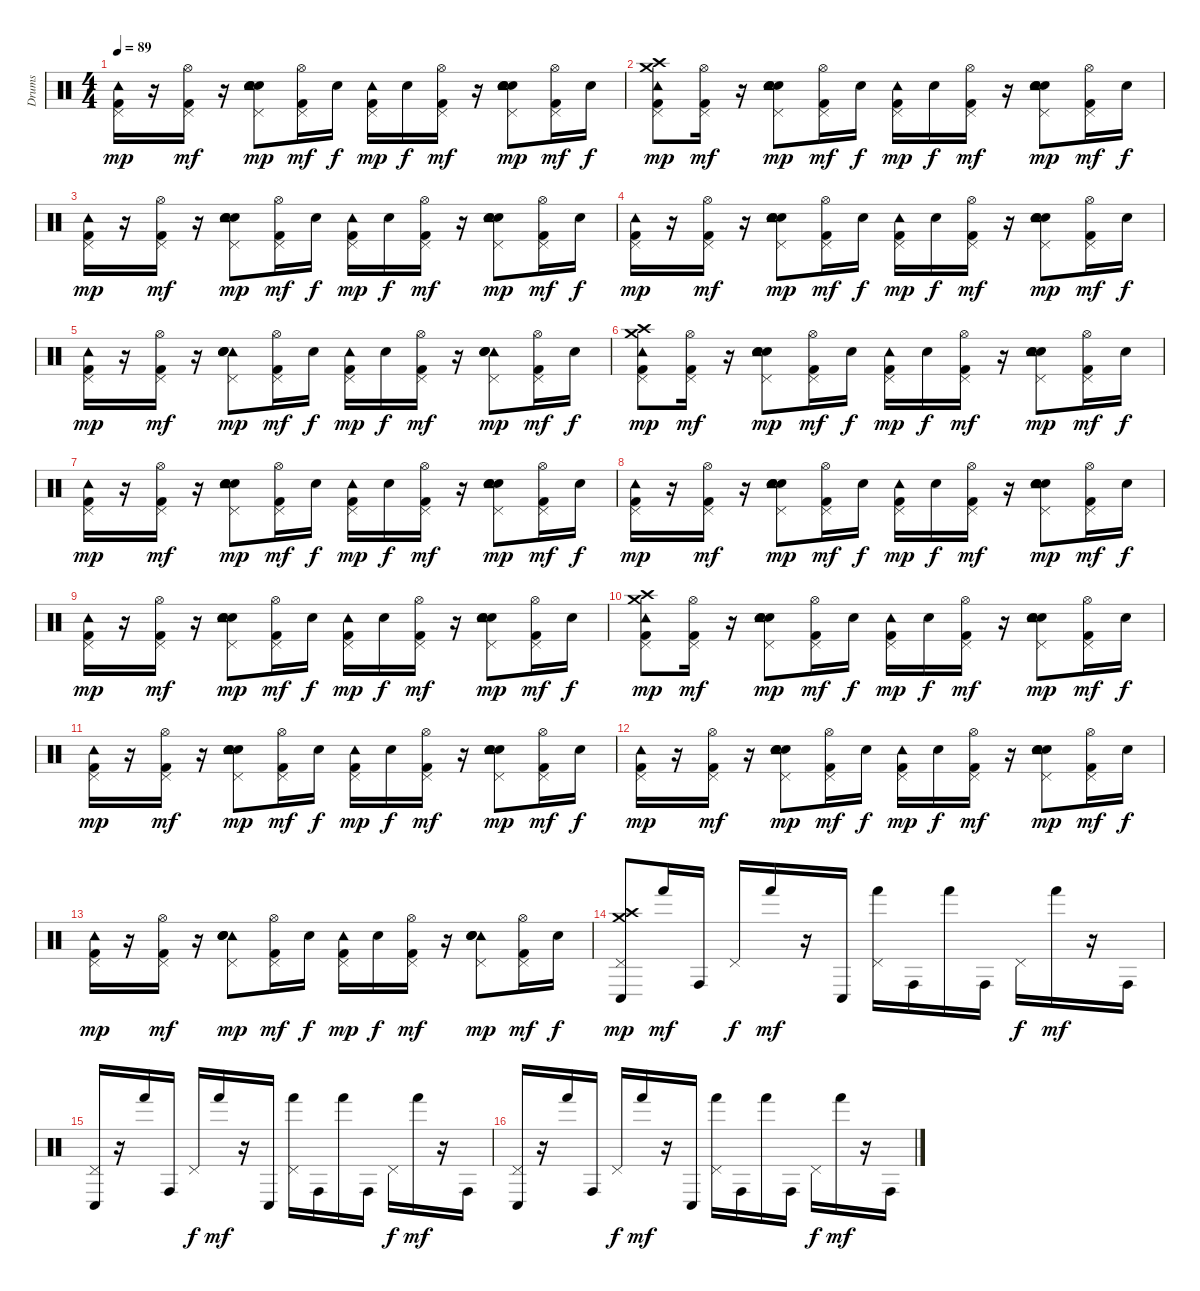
\track ("Drums" "Drums") {instrument percussion}
\staff {score}
\articulation defaults
\ts (4 4)
\tempo 89
\clef neutral
\ks c
("Kick (hit) 2" "Tambourine (hit)" "Pedal Hi-Hat (hit)").16{dy mp} r.16 ("Kick (hit) 2" "Hi-Hat (open)" "Pedal Hi-Hat (hit)").16{dy mf} r.16 ("Electric Snare (hit)" "Hand Clap (hit)" "Snare (hit) 2" "Tambourine (hit)" "Pedal Hi-Hat (hit)").8{dy mp} ("Kick (hit) 2" "Hi-Hat (open)" "Pedal Hi-Hat (hit)").16{dy mf} "Snare (hit) 2".16{dy f} ("Kick (hit) 2" "Tambourine (hit)" "Pedal Hi-Hat (hit)").16{dy mp} "Snare (hit) 2".16{dy f} ("Kick (hit) 2" "Hi-Hat (open)" "Pedal Hi-Hat (hit)").16{dy mf} r.16 ("Electric Snare (hit)" "Hand Clap (hit)" "Snare (hit) 2" "Tambourine (hit)" "Pedal Hi-Hat (hit)").8{dy mp} ("Kick (hit) 2" "Hi-Hat (open)" "Pedal Hi-Hat (hit)").16{dy mf} "Snare (hit) 2".16{dy f} |
("Kick (hit) 2" "Tambourine (hit)" "Crash high (hit)" "Crash medium (hit)" "Pedal Hi-Hat (hit)").8{dy mp} ("Kick (hit) 2" "Hi-Hat (open)" "Pedal Hi-Hat (hit)").16{dy mf} r.16 ("Electric Snare (hit)" "Snare (hit) 2" "Hand Clap (hit)" "Tambourine (hit)" "Pedal Hi-Hat (hit)").8{dy mp} ("Kick (hit) 2" "Hi-Hat (open)" "Pedal Hi-Hat (hit)").16{dy mf} "Snare (hit) 2".16{dy f} ("Kick (hit) 2" "Tambourine (hit)" "Pedal Hi-Hat (hit)").16{dy mp} "Snare (hit) 2".16{dy f} ("Kick (hit) 2" "Hi-Hat (open)" "Pedal Hi-Hat (hit)").16{dy mf} r.16 ("Electric Snare (hit)" "Snare (hit) 2" "Hand Clap (hit)" "Tambourine (hit)" "Pedal Hi-Hat (hit)").8{dy mp} ("Kick (hit) 2" "Hi-Hat (open)" "Pedal Hi-Hat (hit)").16{dy mf} "Snare (hit) 2".16{dy f} |
("Kick (hit) 2" "Tambourine (hit)" "Pedal Hi-Hat (hit)").16{dy mp} r.16 ("Kick (hit) 2" "Hi-Hat (open)" "Pedal Hi-Hat (hit)").16{dy mf} r.16 ("Electric Snare (hit)" "Hand Clap (hit)" "Snare (hit) 2" "Tambourine (hit)" "Pedal Hi-Hat (hit)").8{dy mp} ("Kick (hit) 2" "Hi-Hat (open)" "Pedal Hi-Hat (hit)").16{dy mf} "Snare (hit) 2".16{dy f} ("Kick (hit) 2" "Tambourine (hit)" "Pedal Hi-Hat (hit)").16{dy mp} "Snare (hit) 2".16{dy f} ("Kick (hit) 2" "Hi-Hat (open)" "Pedal Hi-Hat (hit)").16{dy mf} r.16 ("Electric Snare (hit)" "Hand Clap (hit)" "Snare (hit) 2" "Tambourine (hit)" "Pedal Hi-Hat (hit)").8{dy mp} ("Kick (hit) 2" "Hi-Hat (open)" "Pedal Hi-Hat (hit)").16{dy mf} "Snare (hit) 2".16{dy f} |
("Kick (hit) 2" "Tambourine (hit)" "Pedal Hi-Hat (hit)").16{dy mp} r.16 ("Kick (hit) 2" "Hi-Hat (open)" "Pedal Hi-Hat (hit)").16{dy mf} r.16 ("Electric Snare (hit)" "Hand Clap (hit)" "Snare (hit) 2" "Tambourine (hit)" "Pedal Hi-Hat (hit)").8{dy mp} ("Kick (hit) 2" "Hi-Hat (open)" "Pedal Hi-Hat (hit)").16{dy mf} "Snare (hit) 2".16{dy f} ("Kick (hit) 2" "Tambourine (hit)" "Pedal Hi-Hat (hit)").16{dy mp} "Snare (hit) 2".16{dy f} ("Kick (hit) 2" "Hi-Hat (open)" "Pedal Hi-Hat (hit)").16{dy mf} r.16 ("Electric Snare (hit)" "Hand Clap (hit)" "Snare (hit) 2" "Tambourine (hit)" "Pedal Hi-Hat (hit)").8{dy mp} ("Kick (hit) 2" "Hi-Hat (open)" "Pedal Hi-Hat (hit)").16{dy mf} "Snare (hit) 2".16{dy f} |
("Tambourine (hit)" "Pedal Hi-Hat (hit)" "Kick (hit) 2").16{dy mp} r.16 ("Hi-Hat (open)" "Pedal Hi-Hat (hit)" "Kick (hit) 2").16{dy mf} r.16 ("Tambourine (hit)" "Pedal Hi-Hat (hit)" "Electric Snare (hit)" "Hand Clap (hit)" "Snare (hit) 2").8{dy mp} ("Hi-Hat (open)" "Pedal Hi-Hat (hit)" "Kick (hit) 2").16{dy mf} "Snare (hit) 2".16{dy f} ("Tambourine (hit)" "Pedal Hi-Hat (hit)" "Kick (hit) 2").16{dy mp} "Snare (hit) 2".16{dy f} ("Hi-Hat (open)" "Pedal Hi-Hat (hit)" "Kick (hit) 2").16{dy mf} r.16 ("Tambourine (hit)" "Pedal Hi-Hat (hit)" "Electric Snare (hit)" "Hand Clap (hit)" "Snare (hit) 2").8{dy mp} ("Hi-Hat (open)" "Pedal Hi-Hat (hit)" "Kick (hit) 2").16{dy mf} "Snare (hit) 2".16{dy f} |
("Kick (hit) 2" "Tambourine (hit)" "Crash high (hit)" "Crash medium (hit)" "Pedal Hi-Hat (hit)").8{dy mp} ("Kick (hit) 2" "Hi-Hat (open)" "Pedal Hi-Hat (hit)").16{dy mf} r.16 ("Electric Snare (hit)" "Snare (hit) 2" "Hand Clap (hit)" "Tambourine (hit)" "Pedal Hi-Hat (hit)").8{dy mp} ("Kick (hit) 2" "Hi-Hat (open)" "Pedal Hi-Hat (hit)").16{dy mf} "Snare (hit) 2".16{dy f} ("Kick (hit) 2" "Tambourine (hit)" "Pedal Hi-Hat (hit)").16{dy mp} "Snare (hit) 2".16{dy f} ("Kick (hit) 2" "Hi-Hat (open)" "Pedal Hi-Hat (hit)").16{dy mf} r.16 ("Electric Snare (hit)" "Snare (hit) 2" "Hand Clap (hit)" "Tambourine (hit)" "Pedal Hi-Hat (hit)").8{dy mp} ("Kick (hit) 2" "Hi-Hat (open)" "Pedal Hi-Hat (hit)").16{dy mf} "Snare (hit) 2".16{dy f} |
("Kick (hit) 2" "Tambourine (hit)" "Pedal Hi-Hat (hit)").16{dy mp} r.16 ("Kick (hit) 2" "Hi-Hat (open)" "Pedal Hi-Hat (hit)").16{dy mf} r.16 ("Electric Snare (hit)" "Hand Clap (hit)" "Snare (hit) 2" "Tambourine (hit)" "Pedal Hi-Hat (hit)").8{dy mp} ("Kick (hit) 2" "Hi-Hat (open)" "Pedal Hi-Hat (hit)").16{dy mf} "Snare (hit) 2".16{dy f} ("Kick (hit) 2" "Tambourine (hit)" "Pedal Hi-Hat (hit)").16{dy mp} "Snare (hit) 2".16{dy f} ("Kick (hit) 2" "Hi-Hat (open)" "Pedal Hi-Hat (hit)").16{dy mf} r.16 ("Electric Snare (hit)" "Hand Clap (hit)" "Snare (hit) 2" "Tambourine (hit)" "Pedal Hi-Hat (hit)").8{dy mp} ("Kick (hit) 2" "Hi-Hat (open)" "Pedal Hi-Hat (hit)").16{dy mf} "Snare (hit) 2".16{dy f} |
("Kick (hit) 2" "Tambourine (hit)" "Pedal Hi-Hat (hit)").16{dy mp} r.16 ("Kick (hit) 2" "Hi-Hat (open)" "Pedal Hi-Hat (hit)").16{dy mf} r.16 ("Electric Snare (hit)" "Hand Clap (hit)" "Snare (hit) 2" "Tambourine (hit)" "Pedal Hi-Hat (hit)").8{dy mp} ("Kick (hit) 2" "Hi-Hat (open)" "Pedal Hi-Hat (hit)").16{dy mf} "Snare (hit) 2".16{dy f} ("Kick (hit) 2" "Tambourine (hit)" "Pedal Hi-Hat (hit)").16{dy mp} "Snare (hit) 2".16{dy f} ("Kick (hit) 2" "Hi-Hat (open)" "Pedal Hi-Hat (hit)").16{dy mf} r.16 ("Electric Snare (hit)" "Hand Clap (hit)" "Snare (hit) 2" "Tambourine (hit)" "Pedal Hi-Hat (hit)").8{dy mp} ("Kick (hit) 2" "Hi-Hat (open)" "Pedal Hi-Hat (hit)").16{dy mf} "Snare (hit) 2".16{dy f} |
("Kick (hit) 2" "Tambourine (hit)" "Pedal Hi-Hat (hit)").16{dy mp} r.16 ("Kick (hit) 2" "Hi-Hat (open)" "Pedal Hi-Hat (hit)").16{dy mf} r.16 ("Electric Snare (hit)" "Hand Clap (hit)" "Snare (hit) 2" "Tambourine (hit)" "Pedal Hi-Hat (hit)").8{dy mp} ("Kick (hit) 2" "Hi-Hat (open)" "Pedal Hi-Hat (hit)").16{dy mf} "Snare (hit) 2".16{dy f} ("Kick (hit) 2" "Tambourine (hit)" "Pedal Hi-Hat (hit)").16{dy mp} "Snare (hit) 2".16{dy f} ("Kick (hit) 2" "Hi-Hat (open)" "Pedal Hi-Hat (hit)").16{dy mf} r.16 ("Electric Snare (hit)" "Hand Clap (hit)" "Snare (hit) 2" "Tambourine (hit)" "Pedal Hi-Hat (hit)").8{dy mp} ("Kick (hit) 2" "Hi-Hat (open)" "Pedal Hi-Hat (hit)").16{dy mf} "Snare (hit) 2".16{dy f} |
("Kick (hit) 2" "Tambourine (hit)" "Crash high (hit)" "Crash medium (hit)" "Pedal Hi-Hat (hit)").8{dy mp} ("Kick (hit) 2" "Hi-Hat (open)" "Pedal Hi-Hat (hit)").16{dy mf} r.16 ("Electric Snare (hit)" "Snare (hit) 2" "Hand Clap (hit)" "Tambourine (hit)" "Pedal Hi-Hat (hit)").8{dy mp} ("Kick (hit) 2" "Hi-Hat (open)" "Pedal Hi-Hat (hit)").16{dy mf} "Snare (hit) 2".16{dy f} ("Kick (hit) 2" "Tambourine (hit)" "Pedal Hi-Hat (hit)").16{dy mp} "Snare (hit) 2".16{dy f} ("Kick (hit) 2" "Hi-Hat (open)" "Pedal Hi-Hat (hit)").16{dy mf} r.16 ("Electric Snare (hit)" "Snare (hit) 2" "Hand Clap (hit)" "Tambourine (hit)" "Pedal Hi-Hat (hit)").8{dy mp} ("Kick (hit) 2" "Hi-Hat (open)" "Pedal Hi-Hat (hit)").16{dy mf} "Snare (hit) 2".16{dy f} |
("Kick (hit) 2" "Tambourine (hit)" "Pedal Hi-Hat (hit)").16{dy mp} r.16 ("Kick (hit) 2" "Hi-Hat (open)" "Pedal Hi-Hat (hit)").16{dy mf} r.16 ("Electric Snare (hit)" "Hand Clap (hit)" "Snare (hit) 2" "Tambourine (hit)" "Pedal Hi-Hat (hit)").8{dy mp} ("Kick (hit) 2" "Hi-Hat (open)" "Pedal Hi-Hat (hit)").16{dy mf} "Snare (hit) 2".16{dy f} ("Kick (hit) 2" "Tambourine (hit)" "Pedal Hi-Hat (hit)").16{dy mp} "Snare (hit) 2".16{dy f} ("Kick (hit) 2" "Hi-Hat (open)" "Pedal Hi-Hat (hit)").16{dy mf} r.16 ("Electric Snare (hit)" "Hand Clap (hit)" "Snare (hit) 2" "Tambourine (hit)" "Pedal Hi-Hat (hit)").8{dy mp} ("Kick (hit) 2" "Hi-Hat (open)" "Pedal Hi-Hat (hit)").16{dy mf} "Snare (hit) 2".16{dy f} |
("Kick (hit) 2" "Tambourine (hit)" "Pedal Hi-Hat (hit)").16{dy mp} r.16 ("Kick (hit) 2" "Hi-Hat (open)" "Pedal Hi-Hat (hit)").16{dy mf} r.16 ("Electric Snare (hit)" "Hand Clap (hit)" "Snare (hit) 2" "Tambourine (hit)" "Pedal Hi-Hat (hit)").8{dy mp} ("Kick (hit) 2" "Hi-Hat (open)" "Pedal Hi-Hat (hit)").16{dy mf} "Snare (hit) 2".16{dy f} ("Kick (hit) 2" "Tambourine (hit)" "Pedal Hi-Hat (hit)").16{dy mp} "Snare (hit) 2".16{dy f} ("Kick (hit) 2" "Hi-Hat (open)" "Pedal Hi-Hat (hit)").16{dy mf} r.16 ("Electric Snare (hit)" "Hand Clap (hit)" "Snare (hit) 2" "Tambourine (hit)" "Pedal Hi-Hat (hit)").8{dy mp} ("Kick (hit) 2" "Hi-Hat (open)" "Pedal Hi-Hat (hit)").16{dy mf} "Snare (hit) 2".16{dy f} |
("Tambourine (hit)" "Pedal Hi-Hat (hit)" "Kick (hit) 2").16{dy mp} r.16 ("Hi-Hat (open)" "Pedal Hi-Hat (hit)" "Kick (hit) 2").16{dy mf} r.16 ("Tambourine (hit)" "Pedal Hi-Hat (hit)" "Electric Snare (hit)" "Hand Clap (hit)" "Snare (hit) 2").8{dy mp} ("Hi-Hat (open)" "Pedal Hi-Hat (hit)" "Kick (hit) 2").16{dy mf} "Snare (hit) 2".16{dy f} ("Tambourine (hit)" "Pedal Hi-Hat (hit)" "Kick (hit) 2").16{dy mp} "Snare (hit) 2".16{dy f} ("Hi-Hat (open)" "Pedal Hi-Hat (hit)" "Kick (hit) 2").16{dy mf} r.16 ("Tambourine (hit)" "Pedal Hi-Hat (hit)" "Electric Snare (hit)" "Hand Clap (hit)" "Snare (hit) 2").8{dy mp} ("Hi-Hat (open)" "Pedal Hi-Hat (hit)" "Kick (hit) 2").16{dy mf} "Snare (hit) 2".16{dy f} |
("Conga low (hit)" "Crash high (hit)" "Crash medium (hit)" "Pedal Hi-Hat (hit)").8{dy mp} "Hand (hit)".16{dy mf} "Conga high (hit)".16 "Pedal Hi-Hat (hit)".16{dy f} "Hand (hit)".16{dy mf} r.16 "Conga low (hit)".16 ("Hand (hit)" "Pedal Hi-Hat (hit)").16 "Conga high (hit)".16 "Hand (hit)".16 "Conga high (hit)".16 "Pedal Hi-Hat (hit)".16{dy f} "Hand (hit)".16{dy mf} r.16 "Conga high (hit)".16 |
("Conga low (hit)" "Pedal Hi-Hat (hit)").16 r.16 "Hand (hit)".16 "Conga high (hit)".16 "Pedal Hi-Hat (hit)".16{dy f} "Hand (hit)".16{dy mf} r.16 "Conga low (hit)".16 ("Hand (hit)" "Pedal Hi-Hat (hit)").16 "Conga high (hit)".16 "Hand (hit)".16 "Conga high (hit)".16 "Pedal Hi-Hat (hit)".16{dy f} "Hand (hit)".16{dy mf} r.16 "Conga high (hit)".16 |
("Conga low (hit)" "Pedal Hi-Hat (hit)").16 r.16 "Hand (hit)".16 "Conga high (hit)".16 "Pedal Hi-Hat (hit)".16{dy f} "Hand (hit)".16{dy mf} r.16 "Conga low (hit)".16 ("Hand (hit)" "Pedal Hi-Hat (hit)").16 "Conga high (hit)".16 "Hand (hit)".16 "Conga high (hit)".16 "Pedal Hi-Hat (hit)".16{dy f} "Hand (hit)".16{dy mf} r.16 "Conga high (hit)".16
